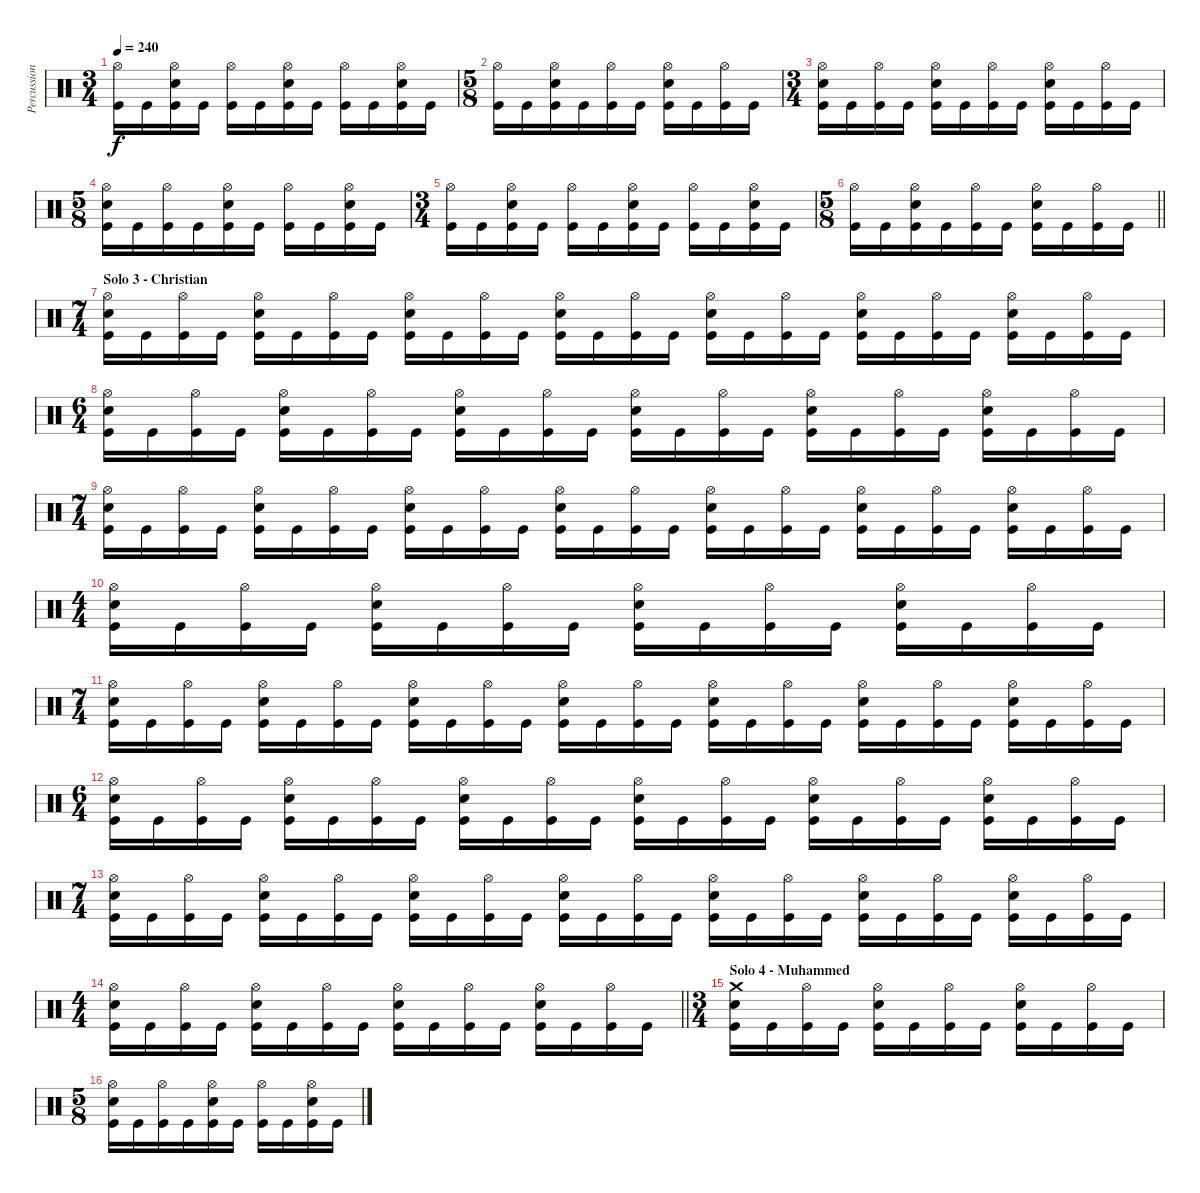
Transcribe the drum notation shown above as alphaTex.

\track ("Percussion" "Percussion") {instrument percussion}
\staff {score}
\articulation defaults
\ts (3 4)
\tempo 240
\clef neutral
\ks c
("Hi-Hat (open)" "Kick (hit)").16{dy f} "Kick (hit)".16 ("Hi-Hat (open)" "Snare (hit) 2" "Kick (hit)").16 "Kick (hit)".16 ("Hi-Hat (open)" "Kick (hit)").16 "Kick (hit)".16 ("Hi-Hat (open)" "Snare (hit) 2" "Kick (hit)").16 "Kick (hit)".16 ("Hi-Hat (open)" "Kick (hit)").16 "Kick (hit)".16 ("Hi-Hat (open)" "Snare (hit) 2" "Kick (hit)").16 "Kick (hit)".16 |
\ts (5 8)
("Hi-Hat (open)" "Kick (hit)").16 "Kick (hit)".16 ("Hi-Hat (open)" "Snare (hit) 2" "Kick (hit)").16 "Kick (hit)".16 ("Hi-Hat (open)" "Kick (hit)").16 "Kick (hit)".16 ("Hi-Hat (open)" "Snare (hit) 2" "Kick (hit)").16 "Kick (hit)".16 ("Hi-Hat (open)" "Kick (hit)").16 "Kick (hit)".16 |
\ts (3 4)
("Hi-Hat (open)" "Snare (hit) 2" "Kick (hit)").16 "Kick (hit)".16 ("Hi-Hat (open)" "Kick (hit)").16 "Kick (hit)".16 ("Hi-Hat (open)" "Snare (hit) 2" "Kick (hit)").16 "Kick (hit)".16 ("Hi-Hat (open)" "Kick (hit)").16 "Kick (hit)".16 ("Hi-Hat (open)" "Snare (hit) 2" "Kick (hit)").16 "Kick (hit)".16 ("Hi-Hat (open)" "Kick (hit)").16 "Kick (hit)".16 |
\ts (5 8)
("Hi-Hat (open)" "Snare (hit) 2" "Kick (hit)").16 "Kick (hit)".16 ("Hi-Hat (open)" "Kick (hit)").16 "Kick (hit)".16 ("Hi-Hat (open)" "Snare (hit) 2" "Kick (hit)").16 "Kick (hit)".16 ("Hi-Hat (open)" "Kick (hit)").16 "Kick (hit)".16 ("Hi-Hat (open)" "Snare (hit) 2" "Kick (hit)").16 "Kick (hit)".16 |
\ts (3 4)
("Hi-Hat (open)" "Kick (hit)").16 "Kick (hit)".16 ("Hi-Hat (open)" "Snare (hit) 2" "Kick (hit)").16 "Kick (hit)".16 ("Hi-Hat (open)" "Kick (hit)").16 "Kick (hit)".16 ("Hi-Hat (open)" "Snare (hit) 2" "Kick (hit)").16 "Kick (hit)".16 ("Hi-Hat (open)" "Kick (hit)").16 "Kick (hit)".16 ("Hi-Hat (open)" "Snare (hit) 2" "Kick (hit)").16 "Kick (hit)".16 |
\ts (5 8)
\barLineRight lightlight
("Hi-Hat (open)" "Kick (hit)").16 "Kick (hit)".16 ("Hi-Hat (open)" "Snare (hit) 2" "Kick (hit)").16 "Kick (hit)".16 ("Hi-Hat (open)" "Kick (hit)").16 "Kick (hit)".16 ("Hi-Hat (open)" "Snare (hit) 2" "Kick (hit)").16 "Kick (hit)".16 ("Hi-Hat (open)" "Kick (hit)").16 "Kick (hit)".16 |
\ts (7 4)
\section ("" "Solo 3 - Christian")
("Hi-Hat (open)" "Snare (hit) 2" "Kick (hit)").16 "Kick (hit)".16 ("Hi-Hat (open)" "Kick (hit)").16 "Kick (hit)".16 ("Hi-Hat (open)" "Snare (hit) 2" "Kick (hit)").16 "Kick (hit)".16 ("Hi-Hat (open)" "Kick (hit)").16 "Kick (hit)".16 ("Hi-Hat (open)" "Snare (hit) 2" "Kick (hit)").16 "Kick (hit)".16 ("Hi-Hat (open)" "Kick (hit)").16 "Kick (hit)".16 ("Hi-Hat (open)" "Snare (hit) 2" "Kick (hit)").16 "Kick (hit)".16 ("Hi-Hat (open)" "Kick (hit)").16 "Kick (hit)".16 ("Hi-Hat (open)" "Snare (hit) 2" "Kick (hit)").16 "Kick (hit)".16 ("Hi-Hat (open)" "Kick (hit)").16 "Kick (hit)".16 ("Hi-Hat (open)" "Snare (hit) 2" "Kick (hit)").16 "Kick (hit)".16 ("Hi-Hat (open)" "Kick (hit)").16 "Kick (hit)".16 ("Hi-Hat (open)" "Snare (hit) 2" "Kick (hit)").16 "Kick (hit)".16 ("Hi-Hat (open)" "Kick (hit)").16 "Kick (hit)".16 |
\ts (6 4)
("Hi-Hat (open)" "Snare (hit) 2" "Kick (hit)").16 "Kick (hit)".16 ("Hi-Hat (open)" "Kick (hit)").16 "Kick (hit)".16 ("Hi-Hat (open)" "Snare (hit) 2" "Kick (hit)").16 "Kick (hit)".16 ("Hi-Hat (open)" "Kick (hit)").16 "Kick (hit)".16 ("Hi-Hat (open)" "Snare (hit) 2" "Kick (hit)").16 "Kick (hit)".16 ("Hi-Hat (open)" "Kick (hit)").16 "Kick (hit)".16 ("Hi-Hat (open)" "Snare (hit) 2" "Kick (hit)").16 "Kick (hit)".16 ("Hi-Hat (open)" "Kick (hit)").16 "Kick (hit)".16 ("Hi-Hat (open)" "Snare (hit) 2" "Kick (hit)").16 "Kick (hit)".16 ("Hi-Hat (open)" "Kick (hit)").16 "Kick (hit)".16 ("Hi-Hat (open)" "Snare (hit) 2" "Kick (hit)").16 "Kick (hit)".16 ("Hi-Hat (open)" "Kick (hit)").16 "Kick (hit)".16 |
\ts (7 4)
("Hi-Hat (open)" "Snare (hit) 2" "Kick (hit)").16 "Kick (hit)".16 ("Hi-Hat (open)" "Kick (hit)").16 "Kick (hit)".16 ("Hi-Hat (open)" "Snare (hit) 2" "Kick (hit)").16 "Kick (hit)".16 ("Hi-Hat (open)" "Kick (hit)").16 "Kick (hit)".16 ("Hi-Hat (open)" "Snare (hit) 2" "Kick (hit)").16 "Kick (hit)".16 ("Hi-Hat (open)" "Kick (hit)").16 "Kick (hit)".16 ("Hi-Hat (open)" "Snare (hit) 2" "Kick (hit)").16 "Kick (hit)".16 ("Hi-Hat (open)" "Kick (hit)").16 "Kick (hit)".16 ("Hi-Hat (open)" "Snare (hit) 2" "Kick (hit)").16 "Kick (hit)".16 ("Hi-Hat (open)" "Kick (hit)").16 "Kick (hit)".16 ("Hi-Hat (open)" "Snare (hit) 2" "Kick (hit)").16 "Kick (hit)".16 ("Hi-Hat (open)" "Kick (hit)").16 "Kick (hit)".16 ("Hi-Hat (open)" "Snare (hit) 2" "Kick (hit)").16 "Kick (hit)".16 ("Hi-Hat (open)" "Kick (hit)").16 "Kick (hit)".16 |
\ts (4 4)
("Hi-Hat (open)" "Snare (hit) 2" "Kick (hit)").16 "Kick (hit)".16 ("Hi-Hat (open)" "Kick (hit)").16 "Kick (hit)".16 ("Hi-Hat (open)" "Snare (hit) 2" "Kick (hit)").16 "Kick (hit)".16 ("Hi-Hat (open)" "Kick (hit)").16 "Kick (hit)".16 ("Hi-Hat (open)" "Snare (hit) 2" "Kick (hit)").16 "Kick (hit)".16 ("Hi-Hat (open)" "Kick (hit)").16 "Kick (hit)".16 ("Hi-Hat (open)" "Snare (hit) 2" "Kick (hit)").16 "Kick (hit)".16 ("Hi-Hat (open)" "Kick (hit)").16 "Kick (hit)".16 |
\ts (7 4)
("Hi-Hat (open)" "Snare (hit) 2" "Kick (hit)").16 "Kick (hit)".16 ("Hi-Hat (open)" "Kick (hit)").16 "Kick (hit)".16 ("Hi-Hat (open)" "Snare (hit) 2" "Kick (hit)").16 "Kick (hit)".16 ("Hi-Hat (open)" "Kick (hit)").16 "Kick (hit)".16 ("Hi-Hat (open)" "Snare (hit) 2" "Kick (hit)").16 "Kick (hit)".16 ("Hi-Hat (open)" "Kick (hit)").16 "Kick (hit)".16 ("Hi-Hat (open)" "Snare (hit) 2" "Kick (hit)").16 "Kick (hit)".16 ("Hi-Hat (open)" "Kick (hit)").16 "Kick (hit)".16 ("Hi-Hat (open)" "Snare (hit) 2" "Kick (hit)").16 "Kick (hit)".16 ("Hi-Hat (open)" "Kick (hit)").16 "Kick (hit)".16 ("Hi-Hat (open)" "Snare (hit) 2" "Kick (hit)").16 "Kick (hit)".16 ("Hi-Hat (open)" "Kick (hit)").16 "Kick (hit)".16 ("Hi-Hat (open)" "Snare (hit) 2" "Kick (hit)").16 "Kick (hit)".16 ("Hi-Hat (open)" "Kick (hit)").16 "Kick (hit)".16 |
\ts (6 4)
("Hi-Hat (open)" "Snare (hit) 2" "Kick (hit)").16 "Kick (hit)".16 ("Hi-Hat (open)" "Kick (hit)").16 "Kick (hit)".16 ("Hi-Hat (open)" "Snare (hit) 2" "Kick (hit)").16 "Kick (hit)".16 ("Hi-Hat (open)" "Kick (hit)").16 "Kick (hit)".16 ("Hi-Hat (open)" "Snare (hit) 2" "Kick (hit)").16 "Kick (hit)".16 ("Hi-Hat (open)" "Kick (hit)").16 "Kick (hit)".16 ("Hi-Hat (open)" "Snare (hit) 2" "Kick (hit)").16 "Kick (hit)".16 ("Hi-Hat (open)" "Kick (hit)").16 "Kick (hit)".16 ("Hi-Hat (open)" "Snare (hit) 2" "Kick (hit)").16 "Kick (hit)".16 ("Hi-Hat (open)" "Kick (hit)").16 "Kick (hit)".16 ("Hi-Hat (open)" "Snare (hit) 2" "Kick (hit)").16 "Kick (hit)".16 ("Hi-Hat (open)" "Kick (hit)").16 "Kick (hit)".16 |
\ts (7 4)
("Hi-Hat (open)" "Snare (hit) 2" "Kick (hit)").16 "Kick (hit)".16 ("Hi-Hat (open)" "Kick (hit)").16 "Kick (hit)".16 ("Hi-Hat (open)" "Snare (hit) 2" "Kick (hit)").16 "Kick (hit)".16 ("Hi-Hat (open)" "Kick (hit)").16 "Kick (hit)".16 ("Hi-Hat (open)" "Snare (hit) 2" "Kick (hit)").16 "Kick (hit)".16 ("Hi-Hat (open)" "Kick (hit)").16 "Kick (hit)".16 ("Hi-Hat (open)" "Snare (hit) 2" "Kick (hit)").16 "Kick (hit)".16 ("Hi-Hat (open)" "Kick (hit)").16 "Kick (hit)".16 ("Hi-Hat (open)" "Snare (hit) 2" "Kick (hit)").16 "Kick (hit)".16 ("Hi-Hat (open)" "Kick (hit)").16 "Kick (hit)".16 ("Hi-Hat (open)" "Snare (hit) 2" "Kick (hit)").16 "Kick (hit)".16 ("Hi-Hat (open)" "Kick (hit)").16 "Kick (hit)".16 ("Hi-Hat (open)" "Snare (hit) 2" "Kick (hit)").16 "Kick (hit)".16 ("Hi-Hat (open)" "Kick (hit)").16 "Kick (hit)".16 |
\ts (4 4)
\barLineRight lightlight
("Hi-Hat (open)" "Snare (hit) 2" "Kick (hit)").16 "Kick (hit)".16 ("Hi-Hat (open)" "Kick (hit)").16 "Kick (hit)".16 ("Hi-Hat (open)" "Snare (hit) 2" "Kick (hit)").16 "Kick (hit)".16 ("Hi-Hat (open)" "Kick (hit)").16 "Kick (hit)".16 ("Hi-Hat (open)" "Snare (hit) 2" "Kick (hit)").16 "Kick (hit)".16 ("Hi-Hat (open)" "Kick (hit)").16 "Kick (hit)".16 ("Hi-Hat (open)" "Snare (hit) 2" "Kick (hit)").16 "Kick (hit)".16 ("Hi-Hat (open)" "Kick (hit)").16 "Kick (hit)".16 |
\ts (3 4)
\section ("" "Solo 4 - Muhammed")
("Crash medium (hit)" "Snare (hit) 2" "Kick (hit)").16 "Kick (hit)".16 ("Hi-Hat (open)" "Kick (hit)").16 "Kick (hit)".16 ("Hi-Hat (open)" "Snare (hit) 2" "Kick (hit)").16 "Kick (hit)".16 ("Hi-Hat (open)" "Kick (hit)").16 "Kick (hit)".16 ("Hi-Hat (open)" "Snare (hit) 2" "Kick (hit)").16 "Kick (hit)".16 ("Hi-Hat (open)" "Kick (hit)").16 "Kick (hit)".16 |
\ts (5 8)
("Hi-Hat (open)" "Snare (hit) 2" "Kick (hit)").16 "Kick (hit)".16 ("Hi-Hat (open)" "Kick (hit)").16 "Kick (hit)".16 ("Hi-Hat (open)" "Snare (hit) 2" "Kick (hit)").16 "Kick (hit)".16 ("Hi-Hat (open)" "Kick (hit)").16 "Kick (hit)".16 ("Hi-Hat (open)" "Snare (hit) 2" "Kick (hit)").16 "Kick (hit)".16
